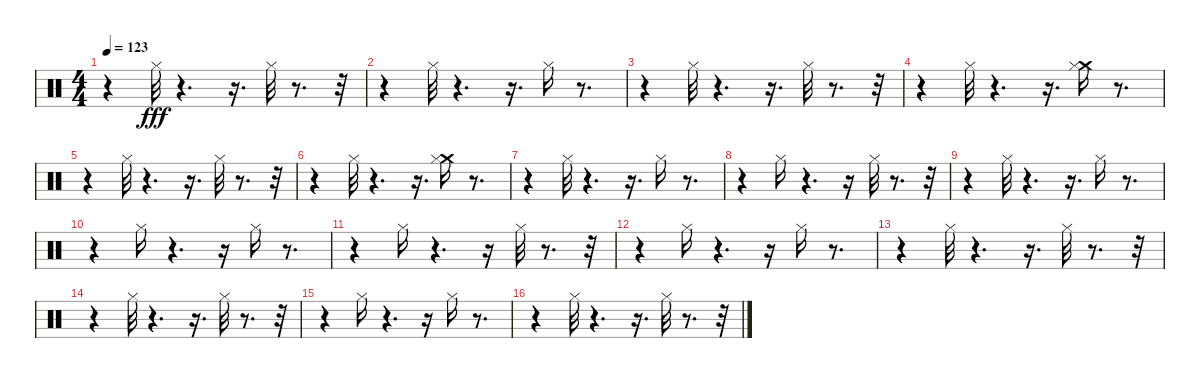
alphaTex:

\track "" {instrument percussion}
\staff {score}
\articulation defaults
\ts (4 4)
\tempo 123
\clef neutral
\ks c
r.4{dy fff} "Hi-Hat (closed)".32 r.4{d} r.16{d} "Hi-Hat (closed)".32 r.8{d} r.32 |
r.4 "Hi-Hat (closed)".32 r.4{d} r.16{d} "Hi-Hat (closed)".16 r.8{d} |
r.4 "Hi-Hat (closed)".32 r.4{d} r.16{d} "Hi-Hat (closed)".32 r.8{d} r.32 |
r.4 "Hi-Hat (closed)".32 r.4{d} r.16{d} ("Crash medium (hit)" "Hi-Hat (closed)").16 r.8{d} |
r.4 "Hi-Hat (closed)".32 r.4{d} r.16{d} "Hi-Hat (closed)".32 r.8{d} r.32 |
r.4 "Hi-Hat (closed)".32 r.4{d} r.16{d} ("Crash medium (hit)" "Hi-Hat (closed)").16 r.8{d} |
r.4 "Hi-Hat (closed)".32 r.4{d} r.16{d} "Hi-Hat (closed)".16 r.8{d} |
r.4 "Hi-Hat (closed)".16 r.4{d} r.16 "Hi-Hat (closed)".32 r.8{d} r.32 |
r.4 "Hi-Hat (closed)".32 r.4{d} r.16{d} "Hi-Hat (closed)".16 r.8{d} |
r.4 "Hi-Hat (closed)".16 r.4{d} r.16 "Hi-Hat (closed)".16 r.8{d} |
r.4 "Hi-Hat (closed)".16 r.4{d} r.16 "Hi-Hat (closed)".32 r.8{d} r.32 |
r.4 "Hi-Hat (closed)".16 r.4{d} r.16 "Hi-Hat (closed)".16 r.8{d} |
r.4 "Hi-Hat (closed)".32 r.4{d} r.16{d} "Hi-Hat (closed)".32 r.8{d} r.32 |
r.4 "Hi-Hat (closed)".32 r.4{d} r.16{d} "Hi-Hat (closed)".32 r.8{d} r.32 |
r.4 "Hi-Hat (closed)".16 r.4{d} r.16 "Hi-Hat (closed)".16 r.8{d} |
r.4 "Hi-Hat (closed)".32 r.4{d} r.16{d} "Hi-Hat (closed)".32 r.8{d} r.32
